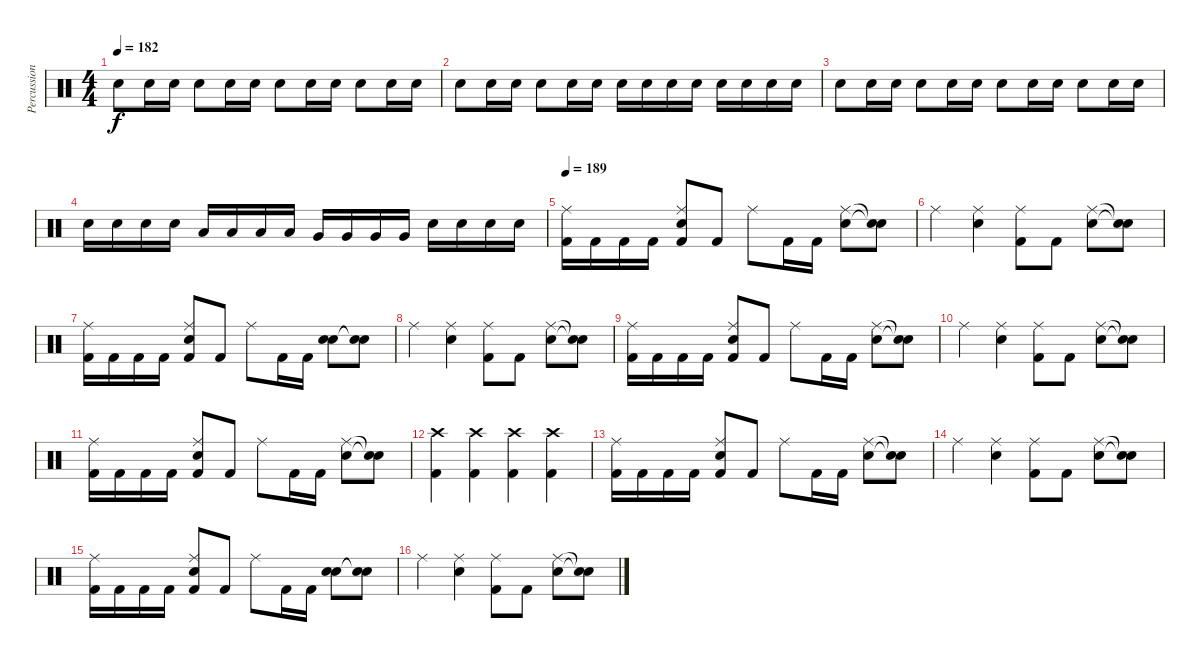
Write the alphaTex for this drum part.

\track ("Percussion" "Percussion") {instrument percussion}
\staff {score}
\articulation defaults
\ts (4 4)
\tempo 182
\clef neutral
\ks c "Electric Snare (hit)".8{dy f} "Electric Snare (hit)".16 "Electric Snare (hit)".16 "Electric Snare (hit)".8 "Electric Snare (hit)".16 "Electric Snare (hit)".16 "Electric Snare (hit)".8 "Electric Snare (hit)".16 "Electric Snare (hit)".16 "Electric Snare (hit)".8 "Electric Snare (hit)".16 "Electric Snare (hit)".16
|
"Electric Snare (hit)".8 "Electric Snare (hit)".16 "Electric Snare (hit)".16 "Electric Snare (hit)".8 "Electric Snare (hit)".16 "Electric Snare (hit)".16 "Electric Snare (hit)".16 "Electric Snare (hit)".16 "Electric Snare (hit)".16 "Electric Snare (hit)".16 "Electric Snare (hit)".16 "Electric Snare (hit)".16 "Electric Snare (hit)".16 "Electric Snare (hit)".16 |
"Electric Snare (hit)".8 "Electric Snare (hit)".16 "Electric Snare (hit)".16 "Electric Snare (hit)".8 "Electric Snare (hit)".16 "Electric Snare (hit)".16 "Electric Snare (hit)".8 "Electric Snare (hit)".16 "Electric Snare (hit)".16 "Electric Snare (hit)".8 "Electric Snare (hit)".16 "Electric Snare (hit)".16 |
"Electric Snare (hit)".16 "Electric Snare (hit)".16 "Electric Snare (hit)".16 "Electric Snare (hit)".16 "Low Tom (hit)".16 "Low Tom (hit)".16 "Low Tom (hit)".16 "Low Tom (hit)".16 "Very Low Tom (hit)".16 "Very Low Tom (hit)".16 "Very Low Tom (hit)".16 "Very Low Tom (hit)".16 "Electric Snare (hit)".16 "Electric Snare (hit)".16 "Electric Snare (hit)".16 "Electric Snare (hit)".16 |
\tempo 189
("Ride (middle)" "Kick (hit) 2").16 "Kick (hit) 2".16 "Kick (hit) 2".16 "Kick (hit) 2".16 ("Ride (middle)" "Electric Snare (hit)" "Kick (hit) 2").8 "Kick (hit) 2".8 "Ride (middle)".8 "Kick (hit) 2".16 "Kick (hit) 2".16 ("Ride (middle)" "Electric Snare (hit)").8 ("Snare (hit)"{t} "Snare (hit)"{t}).8 |
"Ride (middle)".4 ("Ride (middle)" "Electric Snare (hit)").4 ("Ride (middle)" "Kick (hit) 2").8 "Kick (hit) 2".8 ("Ride (middle)" "Electric Snare (hit)").8 ("Snare (hit)"{t} "Snare (hit)"{t}).8 |
("Ride (middle)" "Kick (hit) 2").16 "Kick (hit) 2".16 "Kick (hit) 2".16 "Kick (hit) 2".16 ("Ride (middle)" "Electric Snare (hit)" "Kick (hit) 2").8 "Kick (hit) 2".8 "Ride (middle)".8 "Kick (hit) 2".16 "Kick (hit) 2".16 ("Snare (hit)" "Electric Snare (hit)").8 ("Snare (hit)"{t} "Snare (hit)"{t}).8 |
"Ride (middle)".4 ("Ride (middle)" "Electric Snare (hit)").4 ("Ride (middle)" "Kick (hit) 2").8 "Kick (hit) 2".8 ("Ride (middle)" "Electric Snare (hit)").8 ("Snare (hit)"{t} "Snare (hit)"{t}).8 |
("Ride (middle)" "Kick (hit) 2").16 "Kick (hit) 2".16 "Kick (hit) 2".16 "Kick (hit) 2".16 ("Ride (middle)" "Electric Snare (hit)" "Kick (hit) 2").8 "Kick (hit) 2".8 "Ride (middle)".8 "Kick (hit) 2".16 "Kick (hit) 2".16 ("Ride (middle)" "Electric Snare (hit)").8 ("Snare (hit)"{t} "Snare (hit)"{t}).8 |
"Ride (middle)".4 ("Ride (middle)" "Electric Snare (hit)").4 ("Ride (middle)" "Kick (hit) 2").8 "Kick (hit) 2".8 ("Ride (middle)" "Electric Snare (hit)").8 ("Snare (hit)"{t} "Snare (hit)"{t}).8 |
("Ride (middle)" "Kick (hit) 2").16 "Kick (hit) 2".16 "Kick (hit) 2".16 "Kick (hit) 2".16 ("Ride (middle)" "Electric Snare (hit)" "Kick (hit) 2").8 "Kick (hit) 2".8 "Ride (middle)".8 "Kick (hit) 2".16 "Kick (hit) 2".16 ("Ride (middle)" "Electric Snare (hit)").8 ("Snare (hit)"{t} "Snare (hit)"{t}).8 |
("Crash high (hit)" "Kick (hit) 2").4 ("Crash high (hit)" "Kick (hit) 2").4 ("Crash high (hit)" "Kick (hit) 2").4 ("Crash high (hit)" "Kick (hit) 2").4 |
("Ride (middle)" "Kick (hit) 2").16 "Kick (hit) 2".16 "Kick (hit) 2".16 "Kick (hit) 2".16 ("Ride (middle)" "Electric Snare (hit)" "Kick (hit) 2").8 "Kick (hit) 2".8 "Ride (middle)".8 "Kick (hit) 2".16 "Kick (hit) 2".16 ("Ride (middle)" "Electric Snare (hit)").8 ("Snare (hit)"{t} "Snare (hit)"{t}).8 |
"Ride (middle)".4 ("Ride (middle)" "Electric Snare (hit)").4 ("Ride (middle)" "Kick (hit) 2").8 "Kick (hit) 2".8 ("Ride (middle)" "Electric Snare (hit)").8 ("Snare (hit)"{t} "Snare (hit)"{t}).8 |
("Ride (middle)" "Kick (hit) 2").16 "Kick (hit) 2".16 "Kick (hit) 2".16 "Kick (hit) 2".16 ("Ride (middle)" "Electric Snare (hit)" "Kick (hit) 2").8 "Kick (hit) 2".8 "Ride (middle)".8 "Kick (hit) 2".16 "Kick (hit) 2".16 ("Snare (hit)" "Electric Snare (hit)").8 ("Snare (hit)"{t} "Snare (hit)"{t}).8 |
"Ride (middle)".4 ("Ride (middle)" "Electric Snare (hit)").4 ("Ride (middle)" "Kick (hit) 2").8 "Kick (hit) 2".8 ("Ride (middle)" "Electric Snare (hit)").8 ("Snare (hit)"{t} "Snare (hit)"{t}).8
